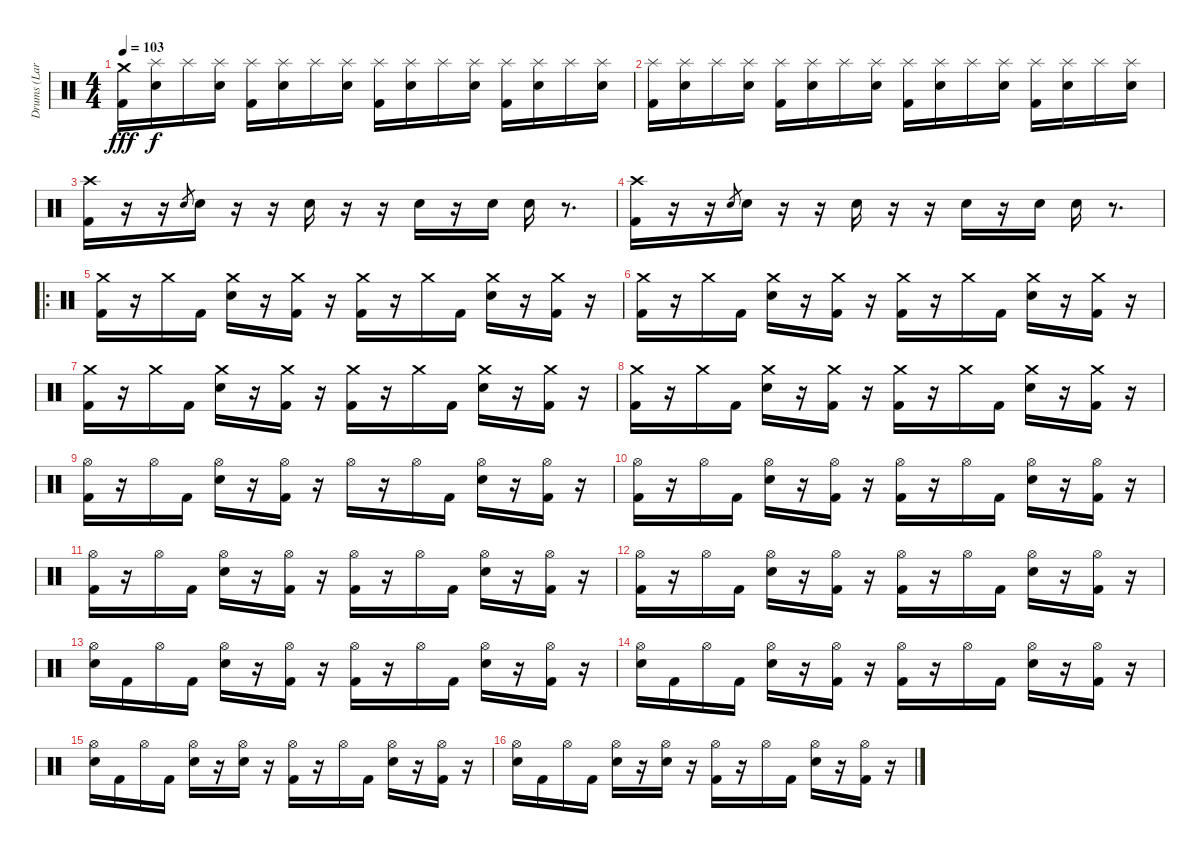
\track ("Drums (Lars)" "Drums (Lar") {instrument percussion}
\staff {score}
\articulation defaults
\ts (4 4)
\tempo 103
\clef neutral
\ks c
("Crash medium (hit)" "Kick (hit) 2").16{dy fff} ("Splash (hit)" "Snare (hit) 2").16{dy f} "Splash (hit)".16 ("Splash (hit)" "Snare (hit) 2").16 ("Splash (hit)" "Kick (hit) 2").16 ("Splash (hit)" "Snare (hit) 2").16 "Splash (hit)".16 ("Splash (hit)" "Snare (hit) 2").16 ("Splash (hit)" "Kick (hit) 2").16 ("Splash (hit)" "Snare (hit) 2").16 "Splash (hit)".16 ("Splash (hit)" "Snare (hit) 2").16 ("Splash (hit)" "Kick (hit) 2").16 ("Splash (hit)" "Snare (hit) 2").16 "Splash (hit)".16 ("Splash (hit)" "Snare (hit) 2").16 |
("Splash (hit)" "Kick (hit) 2").16 ("Splash (hit)" "Snare (hit) 2").16 "Splash (hit)".16 ("Splash (hit)" "Snare (hit) 2").16 ("Splash (hit)" "Kick (hit) 2").16 ("Splash (hit)" "Snare (hit) 2").16 "Splash (hit)".16 ("Splash (hit)" "Snare (hit) 2").16 ("Splash (hit)" "Kick (hit) 2").16 ("Splash (hit)" "Snare (hit) 2").16 "Splash (hit)".16 ("Splash (hit)" "Snare (hit) 2").16 ("Splash (hit)" "Kick (hit) 2").16 ("Splash (hit)" "Snare (hit) 2").16 "Splash (hit)".16 ("Splash (hit)" "Snare (hit) 2").16 |
("Crash high (hit)" "Kick (hit) 2").16 r.16 r.16 "Snare (hit) 2".8{gr} "Snare (hit) 2".16 r.16 r.16 "Snare (hit) 2".16 r.16 r.16 "Snare (hit) 2".16 r.16 "Snare (hit) 2".16 "Snare (hit) 2".16 r.8{d} |
("Crash high (hit)" "Kick (hit) 2").16 r.16 r.16 "Snare (hit) 2".8{gr} "Snare (hit) 2".16 r.16 r.16 "Snare (hit) 2".16 r.16 r.16 "Snare (hit) 2".16 r.16 "Snare (hit) 2".16 "Snare (hit) 2".16 r.8{d} |
\ro
("Crash medium (hit)" "Kick (hit) 2").16 r.16 "Crash medium (hit)".16 "Kick (hit) 2".16 ("Crash medium (hit)" "Snare (hit) 2").16 r.16 ("Crash medium (hit)" "Kick (hit) 2").16 r.16 ("Crash medium (hit)" "Kick (hit) 2").16 r.16 "Crash medium (hit)".16 "Kick (hit) 2".16 ("Crash medium (hit)" "Snare (hit) 2").16 r.16 ("Crash medium (hit)" "Kick (hit) 2").16 r.16 |
("Crash medium (hit)" "Kick (hit) 2").16 r.16 "Crash medium (hit)".16 "Kick (hit) 2".16 ("Crash medium (hit)" "Snare (hit) 2").16 r.16 ("Crash medium (hit)" "Kick (hit) 2").16 r.16 ("Crash medium (hit)" "Kick (hit) 2").16 r.16 "Crash medium (hit)".16 "Kick (hit) 2".16 ("Crash medium (hit)" "Snare (hit) 2").16 r.16 ("Crash medium (hit)" "Kick (hit) 2").16 r.16 |
("Crash medium (hit)" "Kick (hit) 2").16 r.16 "Crash medium (hit)".16 "Kick (hit) 2".16 ("Crash medium (hit)" "Snare (hit) 2").16 r.16 ("Crash medium (hit)" "Kick (hit) 2").16 r.16 ("Crash medium (hit)" "Kick (hit) 2").16 r.16 "Crash medium (hit)".16 "Kick (hit) 2".16 ("Crash medium (hit)" "Snare (hit) 2").16 r.16 ("Crash medium (hit)" "Kick (hit) 2").16 r.16 |
("Crash medium (hit)" "Kick (hit) 2").16 r.16 "Crash medium (hit)".16 "Kick (hit) 2".16 ("Crash medium (hit)" "Snare (hit) 2").16 r.16 ("Crash medium (hit)" "Kick (hit) 2").16 r.16 ("Crash medium (hit)" "Kick (hit) 2").16 r.16 "Crash medium (hit)".16 "Kick (hit) 2".16 ("Crash medium (hit)" "Snare (hit) 2").16 r.16 ("Crash medium (hit)" "Kick (hit) 2").16 r.16 |
("Hi-Hat (open)" "Kick (hit) 2").16 r.16 "Hi-Hat (open)".16 "Kick (hit) 2".16 ("Hi-Hat (open)" "Snare (hit) 2").16 r.16 ("Hi-Hat (open)" "Kick (hit) 2").16 r.16 "Hi-Hat (open)".16 r.16 "Hi-Hat (open)".16 "Kick (hit) 2".16 ("Hi-Hat (open)" "Snare (hit) 2").16 r.16 ("Hi-Hat (open)" "Kick (hit) 2").16 r.16 |
("Hi-Hat (open)" "Kick (hit) 2").16 r.16 "Hi-Hat (open)".16 "Kick (hit) 2".16 ("Hi-Hat (open)" "Snare (hit) 2").16 r.16 ("Hi-Hat (open)" "Kick (hit) 2").16 r.16 ("Hi-Hat (open)" "Kick (hit) 2").16 r.16 "Hi-Hat (open)".16 "Kick (hit) 2".16 ("Hi-Hat (open)" "Snare (hit) 2").16 r.16 ("Hi-Hat (open)" "Kick (hit) 2").16 r.16 |
("Hi-Hat (open)" "Kick (hit) 2").16 r.16 "Hi-Hat (open)".16 "Kick (hit) 2".16 ("Hi-Hat (open)" "Snare (hit) 2").16 r.16 ("Hi-Hat (open)" "Kick (hit) 2").16 r.16 ("Hi-Hat (open)" "Kick (hit) 2").16 r.16 "Hi-Hat (open)".16 "Kick (hit) 2".16 ("Hi-Hat (open)" "Snare (hit) 2").16 r.16 ("Hi-Hat (open)" "Kick (hit) 2").16 r.16 |
("Hi-Hat (open)" "Kick (hit) 2").16 r.16 "Hi-Hat (open)".16 "Kick (hit) 2".16 ("Hi-Hat (open)" "Snare (hit) 2").16 r.16 ("Hi-Hat (open)" "Kick (hit) 2").16 r.16 ("Hi-Hat (open)" "Kick (hit) 2").16 r.16 "Hi-Hat (open)".16 "Kick (hit) 2".16 ("Hi-Hat (open)" "Snare (hit) 2").16 r.16 ("Hi-Hat (open)" "Kick (hit) 2").16 r.16 |
("Hi-Hat (open)" "Snare (hit) 2").16 "Kick (hit) 2".16 "Hi-Hat (open)".16 "Kick (hit) 2".16 ("Hi-Hat (open)" "Snare (hit) 2").16 r.16 ("Hi-Hat (open)" "Kick (hit) 2").16 r.16 ("Hi-Hat (open)" "Kick (hit) 2").16 r.16 "Hi-Hat (open)".16 "Kick (hit) 2".16 ("Hi-Hat (open)" "Snare (hit) 2").16 r.16 ("Hi-Hat (open)" "Kick (hit) 2").16 r.16 |
("Hi-Hat (open)" "Snare (hit) 2").16 "Kick (hit) 2".16 "Hi-Hat (open)".16 "Kick (hit) 2".16 ("Hi-Hat (open)" "Snare (hit) 2").16 r.16 ("Hi-Hat (open)" "Kick (hit) 2").16 r.16 ("Hi-Hat (open)" "Kick (hit) 2").16 r.16 "Hi-Hat (open)".16 "Kick (hit) 2".16 ("Hi-Hat (open)" "Snare (hit) 2").16 r.16 ("Hi-Hat (open)" "Kick (hit) 2").16 r.16 |
("Hi-Hat (open)" "Snare (hit) 2").16 "Kick (hit) 2".16 "Hi-Hat (open)".16 "Kick (hit) 2".16 ("Hi-Hat (open)" "Snare (hit) 2").16 r.16 ("Hi-Hat (open)" "Snare (hit) 2").16 r.16 ("Hi-Hat (open)" "Kick (hit) 2").16 r.16 "Hi-Hat (open)".16 "Kick (hit) 2".16 ("Hi-Hat (open)" "Snare (hit) 2").16 r.16 ("Hi-Hat (open)" "Kick (hit) 2").16 r.16 |
("Hi-Hat (open)" "Snare (hit) 2").16 "Kick (hit) 2".16 "Hi-Hat (open)".16 "Kick (hit) 2".16 ("Hi-Hat (open)" "Snare (hit) 2").16 r.16 ("Hi-Hat (open)" "Snare (hit) 2").16 r.16 ("Hi-Hat (open)" "Kick (hit) 2").16 r.16 "Hi-Hat (open)".16 "Kick (hit) 2".16 ("Hi-Hat (open)" "Snare (hit) 2").16 r.16 ("Hi-Hat (open)" "Kick (hit) 2").16 r.16
